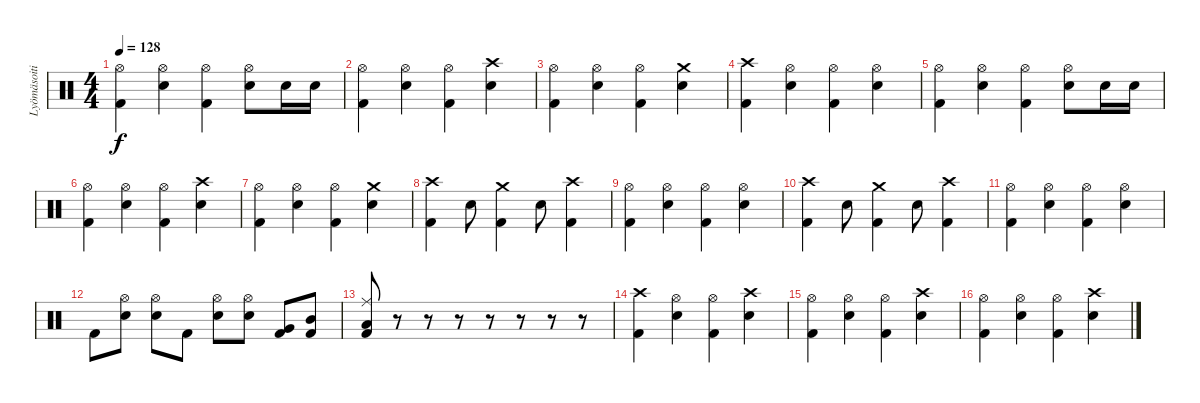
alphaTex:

\track ("Lyömäsoitin" "Lyömäsoiti") {instrument percussion}
\staff {score}
\articulation defaults
\ts (4 4)
\tempo 128
\clef neutral
\ks c
("Hi-Hat (open)" "Kick (hit) 2").4{dy f} ("Hi-Hat (open)" "Electric Snare (hit)").4 ("Hi-Hat (open)" "Kick (hit) 2").4 ("Hi-Hat (open)" "Electric Snare (hit)").8 "Electric Snare (hit)".16 "Electric Snare (hit)".16 |
("Hi-Hat (open)" "Kick (hit) 2").4 ("Hi-Hat (open)" "Electric Snare (hit)").4 ("Hi-Hat (open)" "Kick (hit) 2").4 ("Crash high (hit)" "Electric Snare (hit)").4 |
("Hi-Hat (open)" "Kick (hit) 2").4 ("Hi-Hat (open)" "Electric Snare (hit)").4 ("Hi-Hat (open)" "Kick (hit) 2").4 ("Crash medium (hit)" "Electric Snare (hit)").4 |
("Crash high (hit)" "Kick (hit) 2").4 ("Hi-Hat (open)" "Electric Snare (hit)").4 ("Hi-Hat (open)" "Kick (hit) 2").4 ("Hi-Hat (open)" "Electric Snare (hit)").4 |
("Hi-Hat (open)" "Kick (hit) 2").4 ("Hi-Hat (open)" "Electric Snare (hit)").4 ("Hi-Hat (open)" "Kick (hit) 2").4 ("Hi-Hat (open)" "Electric Snare (hit)").8 "Electric Snare (hit)".16 "Electric Snare (hit)".16 |
("Hi-Hat (open)" "Kick (hit) 2").4 ("Hi-Hat (open)" "Electric Snare (hit)").4 ("Hi-Hat (open)" "Kick (hit) 2").4 ("Crash high (hit)" "Electric Snare (hit)").4 |
("Hi-Hat (open)" "Kick (hit) 2").4 ("Hi-Hat (open)" "Electric Snare (hit)").4 ("Hi-Hat (open)" "Kick (hit) 2").4 ("Crash medium (hit)" "Electric Snare (hit)").4 |
("Crash high (hit)" "Kick (hit) 2").4 "Electric Snare (hit)".8 ("Crash medium (hit)" "Kick (hit) 2").4 "Electric Snare (hit)".8 ("Crash high (hit)" "Kick (hit) 2").4 |
("Hi-Hat (open)" "Kick (hit) 2").4 ("Hi-Hat (open)" "Electric Snare (hit)").4 ("Hi-Hat (open)" "Kick (hit) 2").4 ("Hi-Hat (open)" "Electric Snare (hit)").4 |
("Crash high (hit)" "Kick (hit) 2").4 "Electric Snare (hit)".8 ("Crash medium (hit)" "Kick (hit) 2").4 "Electric Snare (hit)".8 ("Crash high (hit)" "Kick (hit) 2").4 |
("Hi-Hat (open)" "Kick (hit) 2").4 ("Hi-Hat (open)" "Electric Snare (hit)").4 ("Hi-Hat (open)" "Kick (hit) 2").4 ("Hi-Hat (open)" "Electric Snare (hit)").4 |
"Kick (hit) 2".8 ("Hi-Hat (open)" "Electric Snare (hit)").8 ("Hi-Hat (open)" "Electric Snare (hit)").8 "Kick (hit) 2".8 ("Hi-Hat (open)" "Electric Snare (hit)").8 ("Hi-Hat (open)" "Electric Snare (hit)").8 ("Very Low Tom (hit)" "Kick (hit) 2").8 ("Mid Tom (hit)" "Kick (hit) 2").8 |
("Ride (middle)" "Low Tom (hit)" "Kick (hit) 2").8 r.8 r.8 r.8 r.8 r.8 r.8 r.8 |
("Crash high (hit)" "Kick (hit) 2").4 ("Hi-Hat (open)" "Electric Snare (hit)").4 ("Hi-Hat (open)" "Kick (hit) 2").4 ("Crash high (hit)" "Electric Snare (hit)").4 |
("Hi-Hat (open)" "Kick (hit) 2").4 ("Hi-Hat (open)" "Electric Snare (hit)").4 ("Hi-Hat (open)" "Kick (hit) 2").4 ("Crash high (hit)" "Electric Snare (hit)").4 |
("Hi-Hat (open)" "Kick (hit) 2").4 ("Hi-Hat (open)" "Electric Snare (hit)").4 ("Hi-Hat (open)" "Kick (hit) 2").4 ("Crash high (hit)" "Electric Snare (hit)").4
